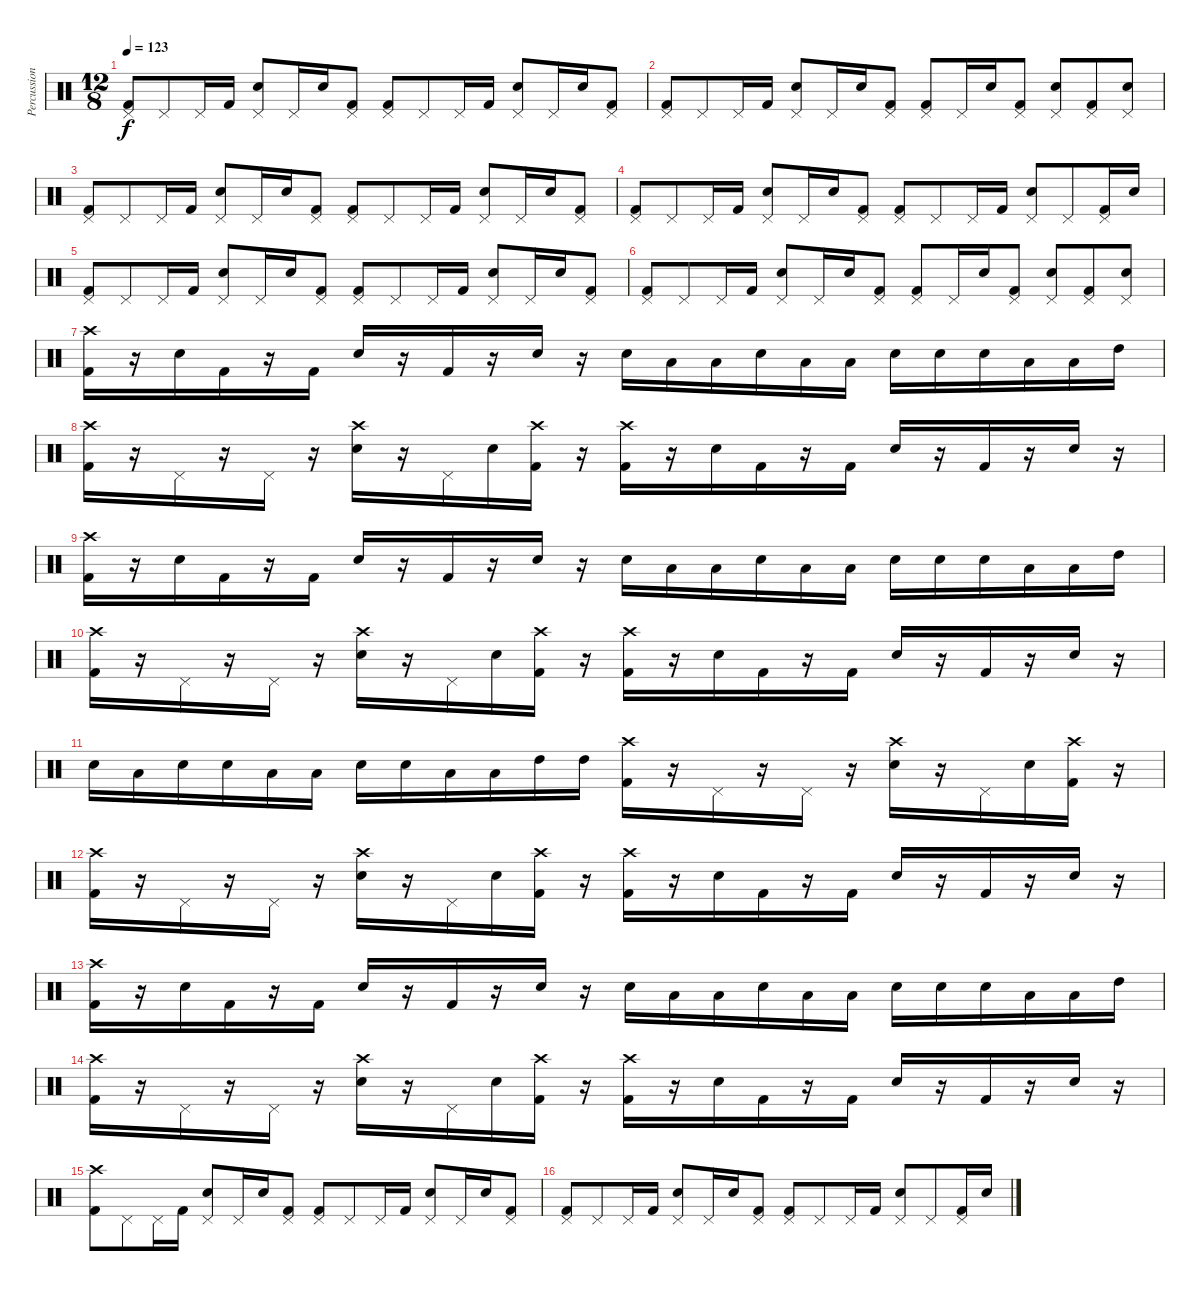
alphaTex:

\track ("Percussion" "Percussion") {instrument percussion}
\staff {score}
\articulation defaults
\ts (12 8)
\tempo 123
\clef neutral
\ks c
("Pedal Hi-Hat (hit)" "Kick (hit) 2").8{dy f} "Pedal Hi-Hat (hit)".8 "Pedal Hi-Hat (hit)".16 "Kick (hit) 2".16 ("Snare (hit) 2" "Pedal Hi-Hat (hit)").8 "Pedal Hi-Hat (hit)".16 "Snare (hit) 2".16 ("Pedal Hi-Hat (hit)" "Kick (hit) 2").8 ("Pedal Hi-Hat (hit)" "Kick (hit) 2").8 "Pedal Hi-Hat (hit)".8 "Pedal Hi-Hat (hit)".16 "Kick (hit) 2".16 ("Snare (hit) 2" "Pedal Hi-Hat (hit)").8 "Pedal Hi-Hat (hit)".16 "Snare (hit) 2".16 ("Pedal Hi-Hat (hit)" "Kick (hit) 2").8 |
("Pedal Hi-Hat (hit)" "Kick (hit) 2").8 "Pedal Hi-Hat (hit)".8 "Pedal Hi-Hat (hit)".16 "Kick (hit) 2".16 ("Snare (hit) 2" "Pedal Hi-Hat (hit)").8 "Pedal Hi-Hat (hit)".16 "Snare (hit) 2".16 ("Pedal Hi-Hat (hit)" "Kick (hit) 2").8 ("Pedal Hi-Hat (hit)" "Kick (hit) 2").8 "Pedal Hi-Hat (hit)".16 "Snare (hit) 2".16 ("Pedal Hi-Hat (hit)" "Kick (hit) 2").8 ("Snare (hit) 2" "Pedal Hi-Hat (hit)").8 ("Pedal Hi-Hat (hit)" "Kick (hit) 2").8 ("Snare (hit) 2" "Pedal Hi-Hat (hit)").8 |
("Pedal Hi-Hat (hit)" "Kick (hit) 2").8 "Pedal Hi-Hat (hit)".8 "Pedal Hi-Hat (hit)".16 "Kick (hit) 2".16 ("Snare (hit) 2" "Pedal Hi-Hat (hit)").8 "Pedal Hi-Hat (hit)".16 "Snare (hit) 2".16 ("Pedal Hi-Hat (hit)" "Kick (hit) 2").8 ("Pedal Hi-Hat (hit)" "Kick (hit) 2").8 "Pedal Hi-Hat (hit)".8 "Pedal Hi-Hat (hit)".16 "Kick (hit) 2".16 ("Snare (hit) 2" "Pedal Hi-Hat (hit)").8 "Pedal Hi-Hat (hit)".16 "Snare (hit) 2".16 ("Pedal Hi-Hat (hit)" "Kick (hit) 2").8 |
("Pedal Hi-Hat (hit)" "Kick (hit) 2").8 "Pedal Hi-Hat (hit)".8 "Pedal Hi-Hat (hit)".16 "Kick (hit) 2".16 ("Snare (hit) 2" "Pedal Hi-Hat (hit)").8 "Pedal Hi-Hat (hit)".16 "Snare (hit) 2".16 ("Pedal Hi-Hat (hit)" "Kick (hit) 2").8 ("Pedal Hi-Hat (hit)" "Kick (hit) 2").8 "Pedal Hi-Hat (hit)".8 "Pedal Hi-Hat (hit)".16 "Kick (hit) 2".16 ("Snare (hit) 2" "Pedal Hi-Hat (hit)").8 "Pedal Hi-Hat (hit)".8 ("Pedal Hi-Hat (hit)" "Kick (hit) 2").16 "Snare (hit) 2".16 |
("Pedal Hi-Hat (hit)" "Kick (hit) 2").8 "Pedal Hi-Hat (hit)".8 "Pedal Hi-Hat (hit)".16 "Kick (hit) 2".16 ("Snare (hit) 2" "Pedal Hi-Hat (hit)").8 "Pedal Hi-Hat (hit)".16 "Snare (hit) 2".16 ("Pedal Hi-Hat (hit)" "Kick (hit) 2").8 ("Pedal Hi-Hat (hit)" "Kick (hit) 2").8 "Pedal Hi-Hat (hit)".8 "Pedal Hi-Hat (hit)".16 "Kick (hit) 2".16 ("Snare (hit) 2" "Pedal Hi-Hat (hit)").8 "Pedal Hi-Hat (hit)".16 "Snare (hit) 2".16 ("Pedal Hi-Hat (hit)" "Kick (hit) 2").8 |
("Pedal Hi-Hat (hit)" "Kick (hit) 2").8 "Pedal Hi-Hat (hit)".8 "Pedal Hi-Hat (hit)".16 "Kick (hit) 2".16 ("Snare (hit) 2" "Pedal Hi-Hat (hit)").8 "Pedal Hi-Hat (hit)".16 "Snare (hit) 2".16 ("Pedal Hi-Hat (hit)" "Kick (hit) 2").8 ("Pedal Hi-Hat (hit)" "Kick (hit) 2").8 "Pedal Hi-Hat (hit)".16 "Snare (hit) 2".16 ("Pedal Hi-Hat (hit)" "Kick (hit) 2").8 ("Snare (hit) 2" "Pedal Hi-Hat (hit)").8 ("Pedal Hi-Hat (hit)" "Kick (hit) 2").8 ("Snare (hit) 2" "Pedal Hi-Hat (hit)").8 |
("Crash high (hit)" "Kick (hit) 2").16 r.16 "Snare (hit) 2".16 "Kick (hit) 2".16 r.16 "Kick (hit) 2".16 "Snare (hit) 2".16 r.16 "Kick (hit) 2".16 r.16 "Snare (hit) 2".16 r.16 "Snare (hit) 2".16 "Low Tom (hit)".16 "Low Tom (hit)".16 "Snare (hit) 2".16 "Low Tom (hit)".16 "Low Tom (hit)".16 "Snare (hit) 2".16 "Snare (hit) 2".16 "Snare (hit) 2".16 "Low Tom (hit)".16 "Low Tom (hit)".16 "High Tom (hit)".16 |
("Crash high (hit)" "Kick (hit) 2").16 r.16 "Pedal Hi-Hat (hit)".16 r.16 "Pedal Hi-Hat (hit)".16 r.16 ("Snare (hit) 2" "Crash high (hit)").16 r.16 "Pedal Hi-Hat (hit)".16 "Snare (hit) 2".16 ("Crash high (hit)" "Kick (hit) 2").16 r.16 ("Crash high (hit)" "Kick (hit) 2").16 r.16 "Snare (hit) 2".16 "Kick (hit) 2".16 r.16 "Kick (hit) 2".16 "Snare (hit) 2".16 r.16 "Kick (hit) 2".16 r.16 "Snare (hit) 2".16 r.16 |
("Crash high (hit)" "Kick (hit) 2").16 r.16 "Snare (hit) 2".16 "Kick (hit) 2".16 r.16 "Kick (hit) 2".16 "Snare (hit) 2".16 r.16 "Kick (hit) 2".16 r.16 "Snare (hit) 2".16 r.16 "Snare (hit) 2".16 "Low Tom (hit)".16 "Low Tom (hit)".16 "Snare (hit) 2".16 "Low Tom (hit)".16 "Low Tom (hit)".16 "Snare (hit) 2".16 "Snare (hit) 2".16 "Snare (hit) 2".16 "Low Tom (hit)".16 "Low Tom (hit)".16 "High Tom (hit)".16 |
("Crash high (hit)" "Kick (hit) 2").16 r.16 "Pedal Hi-Hat (hit)".16 r.16 "Pedal Hi-Hat (hit)".16 r.16 ("Snare (hit) 2" "Crash high (hit)").16 r.16 "Pedal Hi-Hat (hit)".16 "Snare (hit) 2".16 ("Crash high (hit)" "Kick (hit) 2").16 r.16 ("Crash high (hit)" "Kick (hit) 2").16 r.16 "Snare (hit) 2".16 "Kick (hit) 2".16 r.16 "Kick (hit) 2".16 "Snare (hit) 2".16 r.16 "Kick (hit) 2".16 r.16 "Snare (hit) 2".16 r.16 |
"Snare (hit) 2".16 "Low Tom (hit)".16 "Snare (hit) 2".16 "Snare (hit) 2".16 "Low Tom (hit)".16 "Low Tom (hit)".16 "Snare (hit) 2".16 "Snare (hit) 2".16 "Low Tom (hit)".16 "Low Tom (hit)".16 "High Tom (hit)".16 "High Tom (hit)".16 ("Crash high (hit)" "Kick (hit) 2").16 r.16 "Pedal Hi-Hat (hit)".16 r.16 "Pedal Hi-Hat (hit)".16 r.16 ("Snare (hit) 2" "Crash high (hit)").16 r.16 "Pedal Hi-Hat (hit)".16 "Snare (hit) 2".16 ("Crash high (hit)" "Kick (hit) 2").16 r.16 |
("Crash high (hit)" "Kick (hit) 2").16 r.16 "Pedal Hi-Hat (hit)".16 r.16 "Pedal Hi-Hat (hit)".16 r.16 ("Snare (hit) 2" "Crash high (hit)").16 r.16 "Pedal Hi-Hat (hit)".16 "Snare (hit) 2".16 ("Crash high (hit)" "Kick (hit) 2").16 r.16 ("Crash high (hit)" "Kick (hit) 2").16 r.16 "Snare (hit) 2".16 "Kick (hit) 2".16 r.16 "Kick (hit) 2".16 "Snare (hit) 2".16 r.16 "Kick (hit) 2".16 r.16 "Snare (hit) 2".16 r.16 |
("Crash high (hit)" "Kick (hit) 2").16 r.16 "Snare (hit) 2".16 "Kick (hit) 2".16 r.16 "Kick (hit) 2".16 "Snare (hit) 2".16 r.16 "Kick (hit) 2".16 r.16 "Snare (hit) 2".16 r.16 "Snare (hit) 2".16 "Low Tom (hit)".16 "Low Tom (hit)".16 "Snare (hit) 2".16 "Low Tom (hit)".16 "Low Tom (hit)".16 "Snare (hit) 2".16 "Snare (hit) 2".16 "Snare (hit) 2".16 "Low Tom (hit)".16 "Low Tom (hit)".16 "High Tom (hit)".16 |
("Crash high (hit)" "Kick (hit) 2").16 r.16 "Pedal Hi-Hat (hit)".16 r.16 "Pedal Hi-Hat (hit)".16 r.16 ("Snare (hit) 2" "Crash high (hit)").16 r.16 "Pedal Hi-Hat (hit)".16 "Snare (hit) 2".16 ("Crash high (hit)" "Kick (hit) 2").16 r.16 ("Crash high (hit)" "Kick (hit) 2").16 r.16 "Snare (hit) 2".16 "Kick (hit) 2".16 r.16 "Kick (hit) 2".16 "Snare (hit) 2".16 r.16 "Kick (hit) 2".16 r.16 "Snare (hit) 2".16 r.16 |
("Crash high (hit)" "Kick (hit) 2").8 "Pedal Hi-Hat (hit)".8 "Pedal Hi-Hat (hit)".16 "Kick (hit) 2".16 ("Snare (hit) 2" "Pedal Hi-Hat (hit)").8 "Pedal Hi-Hat (hit)".16 "Snare (hit) 2".16 ("Pedal Hi-Hat (hit)" "Kick (hit) 2").8 ("Pedal Hi-Hat (hit)" "Kick (hit) 2").8 "Pedal Hi-Hat (hit)".8 "Pedal Hi-Hat (hit)".16 "Kick (hit) 2".16 ("Snare (hit) 2" "Pedal Hi-Hat (hit)").8 "Pedal Hi-Hat (hit)".16 "Snare (hit) 2".16 ("Pedal Hi-Hat (hit)" "Kick (hit) 2").8 |
("Pedal Hi-Hat (hit)" "Kick (hit) 2").8 "Pedal Hi-Hat (hit)".8 "Pedal Hi-Hat (hit)".16 "Kick (hit) 2".16 ("Snare (hit) 2" "Pedal Hi-Hat (hit)").8 "Pedal Hi-Hat (hit)".16 "Snare (hit) 2".16 ("Pedal Hi-Hat (hit)" "Kick (hit) 2").8 ("Pedal Hi-Hat (hit)" "Kick (hit) 2").8 "Pedal Hi-Hat (hit)".8 "Pedal Hi-Hat (hit)".16 "Kick (hit) 2".16 ("Snare (hit) 2" "Pedal Hi-Hat (hit)").8 "Pedal Hi-Hat (hit)".8 ("Pedal Hi-Hat (hit)" "Kick (hit) 2").16 "Snare (hit) 2".16
